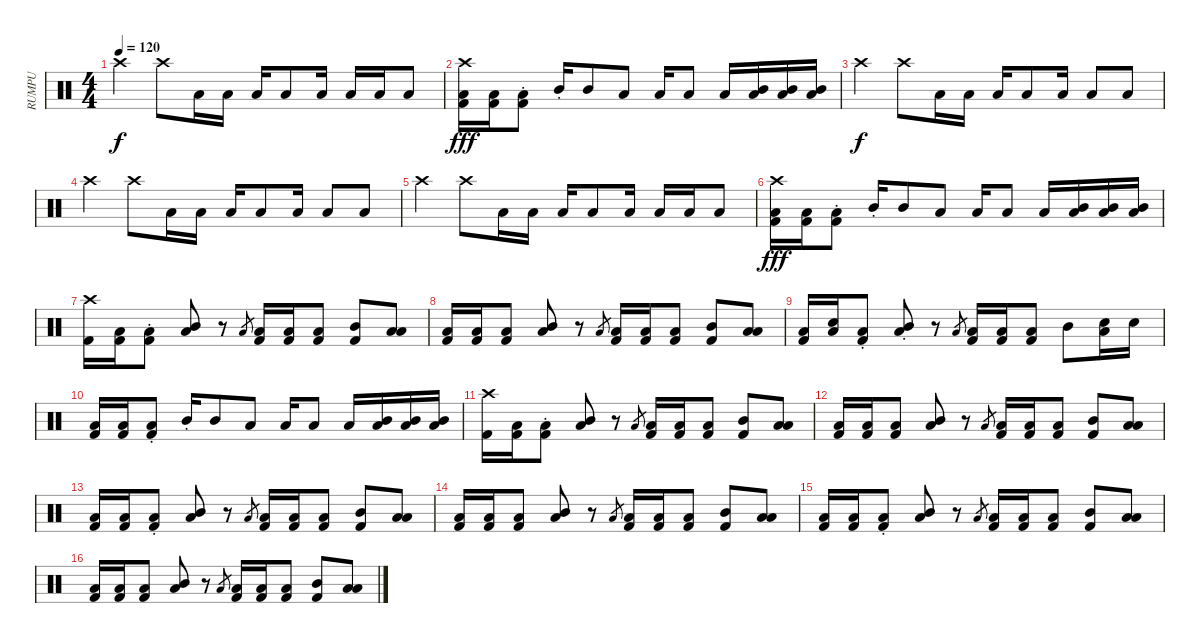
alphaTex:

\track ("RUMPU" "RUMPU") {instrument percussion}
\staff {score}
\articulation defaults
\ts (4 4)
\tempo 120
\clef neutral
\ks c "Crash high (hit)".4{dy f} "Crash high (hit)".8 "Low Floor Tom (hit)".16 "Low Floor Tom (hit)".16 "Low Floor Tom (hit)".16 "Low Floor Tom (hit)".8 "Low Floor Tom (hit)".16 "Low Floor Tom (hit)".16 "Low Floor Tom (hit)".16 "Low Floor Tom (hit)".8
|
("Low Floor Tom (hit)" "Crash high (hit)" "Kick (hit) 2").16{dy fff} ("Low Floor Tom (hit)" "Kick (hit) 2").16 ("Low Floor Tom (hit)"{st} "Kick (hit) 2").8 "Mid Tom (hit)"{st}.16 "Mid Tom (hit)".8 "Low Floor Tom (hit)".8 "Low Floor Tom (hit)".16 "Low Floor Tom (hit)".8 "Low Floor Tom (hit)".16 ("Low Floor Tom (hit)" "Mid Tom (hit)").16 ("Low Floor Tom (hit)" "Mid Tom (hit)").16 ("Low Floor Tom (hit)" "Mid Tom (hit)").16 |
"Crash high (hit)".4{dy f} "Crash high (hit)".8 "Low Floor Tom (hit)".16 "Low Floor Tom (hit)".16 "Low Floor Tom (hit)".16 "Low Floor Tom (hit)".8 "Low Floor Tom (hit)".16 "Low Floor Tom (hit)".8 "Low Floor Tom (hit)".8 |
"Crash high (hit)".4 "Crash high (hit)".8 "Low Floor Tom (hit)".16 "Low Floor Tom (hit)".16 "Low Floor Tom (hit)".16 "Low Floor Tom (hit)".8 "Low Floor Tom (hit)".16 "Low Floor Tom (hit)".8 "Low Floor Tom (hit)".8 |
"Crash high (hit)".4 "Crash high (hit)".8 "Low Floor Tom (hit)".16 "Low Floor Tom (hit)".16 "Low Floor Tom (hit)".16 "Low Floor Tom (hit)".8 "Low Floor Tom (hit)".16 "Low Floor Tom (hit)".16 "Low Floor Tom (hit)".16 "Low Floor Tom (hit)".8 |
("Low Floor Tom (hit)" "Crash high (hit)" "Kick (hit) 2").16{dy fff} ("Low Floor Tom (hit)" "Kick (hit) 2").16 ("Low Floor Tom (hit)"{st} "Kick (hit) 2").8 "Mid Tom (hit)"{st}.16 "Mid Tom (hit)".8 "Low Floor Tom (hit)".8 "Low Floor Tom (hit)".16 "Low Floor Tom (hit)".8 "Low Floor Tom (hit)".16 ("Low Floor Tom (hit)" "Mid Tom (hit)").16 ("Low Floor Tom (hit)" "Mid Tom (hit)").16 ("Low Floor Tom (hit)" "Mid Tom (hit)").16 |
("Crash high (hit)" "Kick (hit) 2").16 ("Low Floor Tom (hit)" "Kick (hit) 2").16 ("Low Floor Tom (hit)" "Kick (hit) 2"{st}).8 ("Low Floor Tom (hit)" "Mid Tom (hit)").8 r.8 "Low Floor Tom (hit)".8{gr} ("Low Floor Tom (hit)" "Kick (hit) 2").16 ("Low Floor Tom (hit)" "Kick (hit) 2").16 ("Low Floor Tom (hit)" "Kick (hit) 2").8 ("Mid Tom (hit)" "Kick (hit) 2").8 ("Low Floor Tom (hit)" "Low Tom (hit)").8 |
("Low Floor Tom (hit)" "Kick (hit) 2").16 ("Low Floor Tom (hit)" "Kick (hit) 2").16 ("Low Floor Tom (hit)" "Kick (hit) 2").8 ("Low Floor Tom (hit)" "Mid Tom (hit)").8 r.8 "Low Floor Tom (hit)".8{gr} ("Low Floor Tom (hit)" "Kick (hit) 2").16 ("Low Floor Tom (hit)" "Kick (hit) 2").16 ("Low Floor Tom (hit)" "Kick (hit) 2").8 ("Mid Tom (hit)" "Kick (hit) 2").8 ("Low Floor Tom (hit)" "Low Tom (hit)").8 |
("Low Floor Tom (hit)" "Kick (hit) 2").16 ("Low Floor Tom (hit)" "Snare (hit)").16 ("Low Floor Tom (hit)" "Kick (hit) 2"{st}).8 ("Low Floor Tom (hit)"{st} "Mid Tom (hit)").8 r.8 "Low Floor Tom (hit)".8{gr} ("Low Floor Tom (hit)" "Kick (hit) 2").16 ("Low Floor Tom (hit)" "Kick (hit) 2").16 ("Low Floor Tom (hit)" "Kick (hit) 2").8 "Mid Tom (hit)".8 ("Low Floor Tom (hit)" "Electric Snare (hit)").16 "Electric Snare (hit)".16 |
("Low Floor Tom (hit)" "Kick (hit) 2").16 ("Low Floor Tom (hit)" "Kick (hit) 2").16 ("Low Floor Tom (hit)"{st} "Kick (hit) 2").8 "Mid Tom (hit)"{st}.16 "Mid Tom (hit)".8 "Low Floor Tom (hit)".8 "Low Floor Tom (hit)".16 "Low Floor Tom (hit)".8 "Low Floor Tom (hit)".16 ("Low Floor Tom (hit)" "Mid Tom (hit)").16 ("Low Floor Tom (hit)" "Mid Tom (hit)").16 ("Low Floor Tom (hit)" "Mid Tom (hit)").16 |
("Crash high (hit)" "Kick (hit) 2").16 ("Low Floor Tom (hit)" "Kick (hit) 2").16 ("Low Floor Tom (hit)" "Kick (hit) 2"{st}).8 ("Low Floor Tom (hit)" "Mid Tom (hit)").8 r.8 "Low Floor Tom (hit)".8{gr} ("Low Floor Tom (hit)" "Kick (hit) 2").16 ("Low Floor Tom (hit)" "Kick (hit) 2").16 ("Low Floor Tom (hit)" "Kick (hit) 2").8 ("Mid Tom (hit)" "Kick (hit) 2").8 ("Low Floor Tom (hit)" "Low Tom (hit)").8 |
("Low Floor Tom (hit)" "Kick (hit) 2").16 ("Low Floor Tom (hit)" "Kick (hit) 2").16 ("Low Floor Tom (hit)" "Kick (hit) 2").8 ("Low Floor Tom (hit)" "Mid Tom (hit)").8 r.8 "Low Floor Tom (hit)".8{gr} ("Low Floor Tom (hit)" "Kick (hit) 2").16 ("Low Floor Tom (hit)" "Kick (hit) 2").16 ("Low Floor Tom (hit)" "Kick (hit) 2").8 ("Mid Tom (hit)" "Kick (hit) 2").8 ("Low Floor Tom (hit)" "Low Tom (hit)").8 |
("Low Floor Tom (hit)" "Kick (hit) 2").16 ("Low Floor Tom (hit)" "Kick (hit) 2").16 ("Low Floor Tom (hit)" "Kick (hit) 2"{st}).8 ("Low Floor Tom (hit)" "Mid Tom (hit)").8 r.8 "Low Floor Tom (hit)".8{gr} ("Low Floor Tom (hit)" "Kick (hit) 2").16 ("Low Floor Tom (hit)" "Kick (hit) 2").16 ("Low Floor Tom (hit)" "Kick (hit) 2").8 ("Mid Tom (hit)" "Kick (hit) 2").8 ("Low Floor Tom (hit)" "Low Tom (hit)").8 |
("Low Floor Tom (hit)" "Kick (hit) 2").16 ("Low Floor Tom (hit)" "Kick (hit) 2").16 ("Low Floor Tom (hit)" "Kick (hit) 2").8 ("Low Floor Tom (hit)" "Mid Tom (hit)").8 r.8 "Low Floor Tom (hit)".8{gr} ("Low Floor Tom (hit)" "Kick (hit) 2").16 ("Low Floor Tom (hit)" "Kick (hit) 2").16 ("Low Floor Tom (hit)" "Kick (hit) 2").8 ("Mid Tom (hit)" "Kick (hit) 2").8 ("Low Floor Tom (hit)" "Low Tom (hit)").8 |
("Low Floor Tom (hit)" "Kick (hit) 2").16 ("Low Floor Tom (hit)" "Kick (hit) 2").16 ("Low Floor Tom (hit)" "Kick (hit) 2"{st}).8 ("Low Floor Tom (hit)" "Mid Tom (hit)").8 r.8 "Low Floor Tom (hit)".8{gr} ("Low Floor Tom (hit)" "Kick (hit) 2").16 ("Low Floor Tom (hit)" "Kick (hit) 2").16 ("Low Floor Tom (hit)" "Kick (hit) 2").8 ("Mid Tom (hit)" "Kick (hit) 2").8 ("Low Floor Tom (hit)" "Low Tom (hit)").8 |
("Low Floor Tom (hit)" "Kick (hit) 2").16 ("Low Floor Tom (hit)" "Kick (hit) 2").16 ("Low Floor Tom (hit)" "Kick (hit) 2").8 ("Low Floor Tom (hit)" "Mid Tom (hit)").8 r.8 "Low Floor Tom (hit)".8{gr} ("Low Floor Tom (hit)" "Kick (hit) 2").16 ("Low Floor Tom (hit)" "Kick (hit) 2").16 ("Low Floor Tom (hit)" "Kick (hit) 2").8 ("Mid Tom (hit)" "Kick (hit) 2").8 ("Low Floor Tom (hit)" "Low Tom (hit)").8
